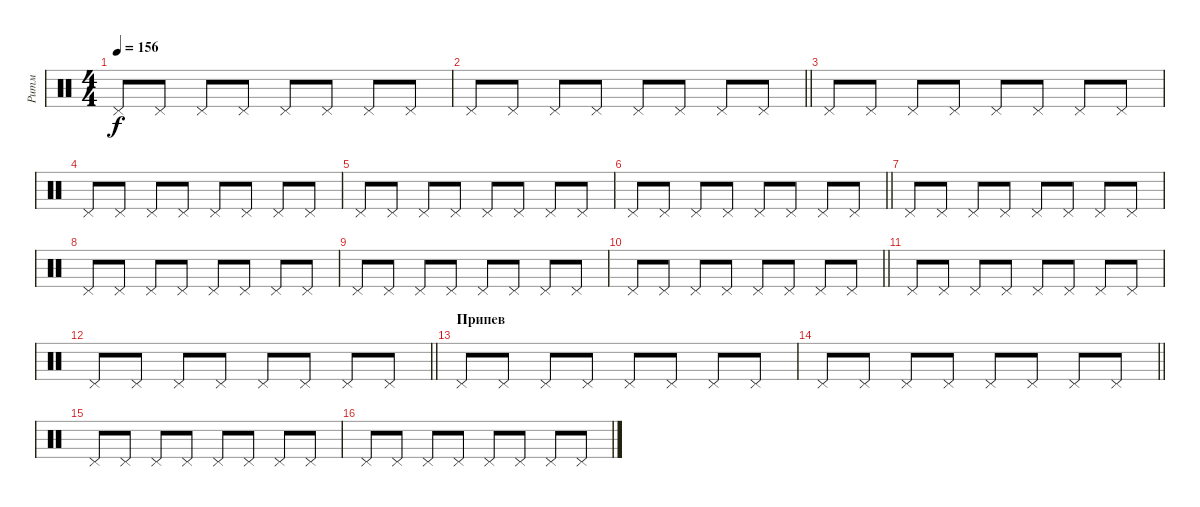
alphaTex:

\track ("Ритм" "Ритм") {instrument percussion}
\staff {score}
\articulation defaults
\ts (4 4)
\tempo 156
\clef neutral
\ks c "Pedal Hi-Hat (hit)".8{dy f} "Pedal Hi-Hat (hit)".8 "Pedal Hi-Hat (hit)".8 "Pedal Hi-Hat (hit)".8 "Pedal Hi-Hat (hit)".8 "Pedal Hi-Hat (hit)".8 "Pedal Hi-Hat (hit)".8 "Pedal Hi-Hat (hit)".8
|
\barLineRight lightlight "Pedal Hi-Hat (hit)".8 "Pedal Hi-Hat (hit)".8 "Pedal Hi-Hat (hit)".8 "Pedal Hi-Hat (hit)".8 "Pedal Hi-Hat (hit)".8 "Pedal Hi-Hat (hit)".8 "Pedal Hi-Hat (hit)".8 "Pedal Hi-Hat (hit)".8
|
"Pedal Hi-Hat (hit)".8 "Pedal Hi-Hat (hit)".8 "Pedal Hi-Hat (hit)".8 "Pedal Hi-Hat (hit)".8 "Pedal Hi-Hat (hit)".8 "Pedal Hi-Hat (hit)".8 "Pedal Hi-Hat (hit)".8 "Pedal Hi-Hat (hit)".8 |
"Pedal Hi-Hat (hit)".8 "Pedal Hi-Hat (hit)".8 "Pedal Hi-Hat (hit)".8 "Pedal Hi-Hat (hit)".8 "Pedal Hi-Hat (hit)".8 "Pedal Hi-Hat (hit)".8 "Pedal Hi-Hat (hit)".8 "Pedal Hi-Hat (hit)".8 |
"Pedal Hi-Hat (hit)".8 "Pedal Hi-Hat (hit)".8 "Pedal Hi-Hat (hit)".8 "Pedal Hi-Hat (hit)".8 "Pedal Hi-Hat (hit)".8 "Pedal Hi-Hat (hit)".8 "Pedal Hi-Hat (hit)".8 "Pedal Hi-Hat (hit)".8 |
\barLineRight lightlight "Pedal Hi-Hat (hit)".8 "Pedal Hi-Hat (hit)".8 "Pedal Hi-Hat (hit)".8 "Pedal Hi-Hat (hit)".8 "Pedal Hi-Hat (hit)".8 "Pedal Hi-Hat (hit)".8 "Pedal Hi-Hat (hit)".8 "Pedal Hi-Hat (hit)".8
|
"Pedal Hi-Hat (hit)".8 "Pedal Hi-Hat (hit)".8 "Pedal Hi-Hat (hit)".8 "Pedal Hi-Hat (hit)".8 "Pedal Hi-Hat (hit)".8 "Pedal Hi-Hat (hit)".8 "Pedal Hi-Hat (hit)".8 "Pedal Hi-Hat (hit)".8 |
"Pedal Hi-Hat (hit)".8 "Pedal Hi-Hat (hit)".8 "Pedal Hi-Hat (hit)".8 "Pedal Hi-Hat (hit)".8 "Pedal Hi-Hat (hit)".8 "Pedal Hi-Hat (hit)".8 "Pedal Hi-Hat (hit)".8 "Pedal Hi-Hat (hit)".8 |
"Pedal Hi-Hat (hit)".8 "Pedal Hi-Hat (hit)".8 "Pedal Hi-Hat (hit)".8 "Pedal Hi-Hat (hit)".8 "Pedal Hi-Hat (hit)".8 "Pedal Hi-Hat (hit)".8 "Pedal Hi-Hat (hit)".8 "Pedal Hi-Hat (hit)".8 |
\barLineRight lightlight "Pedal Hi-Hat (hit)".8 "Pedal Hi-Hat (hit)".8 "Pedal Hi-Hat (hit)".8 "Pedal Hi-Hat (hit)".8 "Pedal Hi-Hat (hit)".8 "Pedal Hi-Hat (hit)".8 "Pedal Hi-Hat (hit)".8 "Pedal Hi-Hat (hit)".8
|
"Pedal Hi-Hat (hit)".8 "Pedal Hi-Hat (hit)".8 "Pedal Hi-Hat (hit)".8 "Pedal Hi-Hat (hit)".8 "Pedal Hi-Hat (hit)".8 "Pedal Hi-Hat (hit)".8 "Pedal Hi-Hat (hit)".8 "Pedal Hi-Hat (hit)".8 |
\barLineRight lightlight "Pedal Hi-Hat (hit)".8 "Pedal Hi-Hat (hit)".8 "Pedal Hi-Hat (hit)".8 "Pedal Hi-Hat (hit)".8 "Pedal Hi-Hat (hit)".8 "Pedal Hi-Hat (hit)".8 "Pedal Hi-Hat (hit)".8 "Pedal Hi-Hat (hit)".8
|
\section ("" "Припев")
"Pedal Hi-Hat (hit)".8 "Pedal Hi-Hat (hit)".8 "Pedal Hi-Hat (hit)".8 "Pedal Hi-Hat (hit)".8 "Pedal Hi-Hat (hit)".8 "Pedal Hi-Hat (hit)".8 "Pedal Hi-Hat (hit)".8 "Pedal Hi-Hat (hit)".8 |
\barLineRight lightlight "Pedal Hi-Hat (hit)".8 "Pedal Hi-Hat (hit)".8 "Pedal Hi-Hat (hit)".8 "Pedal Hi-Hat (hit)".8 "Pedal Hi-Hat (hit)".8 "Pedal Hi-Hat (hit)".8 "Pedal Hi-Hat (hit)".8 "Pedal Hi-Hat (hit)".8
|
"Pedal Hi-Hat (hit)".8 "Pedal Hi-Hat (hit)".8 "Pedal Hi-Hat (hit)".8 "Pedal Hi-Hat (hit)".8 "Pedal Hi-Hat (hit)".8 "Pedal Hi-Hat (hit)".8 "Pedal Hi-Hat (hit)".8 "Pedal Hi-Hat (hit)".8 |
"Pedal Hi-Hat (hit)".8 "Pedal Hi-Hat (hit)".8 "Pedal Hi-Hat (hit)".8 "Pedal Hi-Hat (hit)".8 "Pedal Hi-Hat (hit)".8 "Pedal Hi-Hat (hit)".8 "Pedal Hi-Hat (hit)".8 "Pedal Hi-Hat (hit)".8
